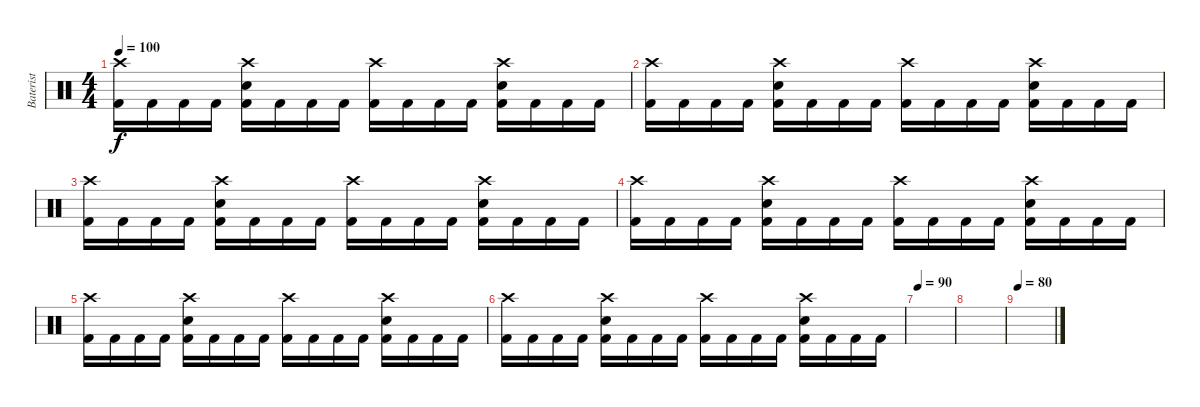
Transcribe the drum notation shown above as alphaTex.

\track ("Baterist" "Baterist") {instrument percussion}
\staff {score}
\articulation defaults
\ts (4 4)
\tempo 100
\clef neutral
\ks c
("Crash high (hit)" "Kick (hit) 2").16{dy f} "Kick (hit) 2".16 "Kick (hit) 2".16 "Kick (hit) 2".16 ("Crash high (hit)" "Electric Snare (hit)" "Kick (hit) 2").16 "Kick (hit) 2".16 "Kick (hit) 2".16 "Kick (hit) 2".16 ("Crash high (hit)" "Kick (hit) 2").16 "Kick (hit) 2".16 "Kick (hit) 2".16 "Kick (hit) 2".16 ("Crash high (hit)" "Electric Snare (hit)" "Kick (hit) 2").16 "Kick (hit) 2".16 "Kick (hit) 2".16 "Kick (hit) 2".16 |
("Crash high (hit)" "Kick (hit) 2").16{volume 10} "Kick (hit) 2".16 "Kick (hit) 2".16 "Kick (hit) 2".16 ("Crash high (hit)" "Electric Snare (hit)" "Kick (hit) 2").16 "Kick (hit) 2".16 "Kick (hit) 2".16 "Kick (hit) 2".16 ("Crash high (hit)" "Kick (hit) 2").16 "Kick (hit) 2".16 "Kick (hit) 2".16 "Kick (hit) 2".16 ("Crash high (hit)" "Electric Snare (hit)" "Kick (hit) 2").16 "Kick (hit) 2".16 "Kick (hit) 2".16 "Kick (hit) 2".16 |
("Crash high (hit)" "Kick (hit) 2").16 "Kick (hit) 2".16 "Kick (hit) 2".16 "Kick (hit) 2".16 ("Crash high (hit)" "Electric Snare (hit)" "Kick (hit) 2").16 "Kick (hit) 2".16 "Kick (hit) 2".16 "Kick (hit) 2".16 ("Crash high (hit)" "Kick (hit) 2").16 "Kick (hit) 2".16 "Kick (hit) 2".16 "Kick (hit) 2".16 ("Crash high (hit)" "Electric Snare (hit)" "Kick (hit) 2").16 "Kick (hit) 2".16 "Kick (hit) 2".16 "Kick (hit) 2".16 |
("Crash high (hit)" "Kick (hit) 2").16{volume 6} "Kick (hit) 2".16 "Kick (hit) 2".16 "Kick (hit) 2".16 ("Crash high (hit)" "Electric Snare (hit)" "Kick (hit) 2").16 "Kick (hit) 2".16 "Kick (hit) 2".16 "Kick (hit) 2".16 ("Crash high (hit)" "Kick (hit) 2").16 "Kick (hit) 2".16 "Kick (hit) 2".16 "Kick (hit) 2".16 ("Crash high (hit)" "Electric Snare (hit)" "Kick (hit) 2").16 "Kick (hit) 2".16 "Kick (hit) 2".16 "Kick (hit) 2".16 |
("Crash high (hit)" "Kick (hit) 2").16 "Kick (hit) 2".16 "Kick (hit) 2".16 "Kick (hit) 2".16 ("Crash high (hit)" "Electric Snare (hit)" "Kick (hit) 2").16 "Kick (hit) 2".16 "Kick (hit) 2".16 "Kick (hit) 2".16 ("Crash high (hit)" "Kick (hit) 2").16 "Kick (hit) 2".16 "Kick (hit) 2".16 "Kick (hit) 2".16 ("Crash high (hit)" "Electric Snare (hit)" "Kick (hit) 2").16 "Kick (hit) 2".16 "Kick (hit) 2".16 "Kick (hit) 2".16 |
("Crash high (hit)" "Kick (hit) 2").16{volume 3} "Kick (hit) 2".16 "Kick (hit) 2".16 "Kick (hit) 2".16 ("Crash high (hit)" "Electric Snare (hit)" "Kick (hit) 2").16 "Kick (hit) 2".16 "Kick (hit) 2".16 "Kick (hit) 2".16 ("Crash high (hit)" "Kick (hit) 2").16 "Kick (hit) 2".16 "Kick (hit) 2".16 "Kick (hit) 2".16 ("Crash high (hit)" "Electric Snare (hit)" "Kick (hit) 2").16 "Kick (hit) 2".16 "Kick (hit) 2".16 "Kick (hit) 2".16 |
\tempo 90
|
|
\tempo 80
